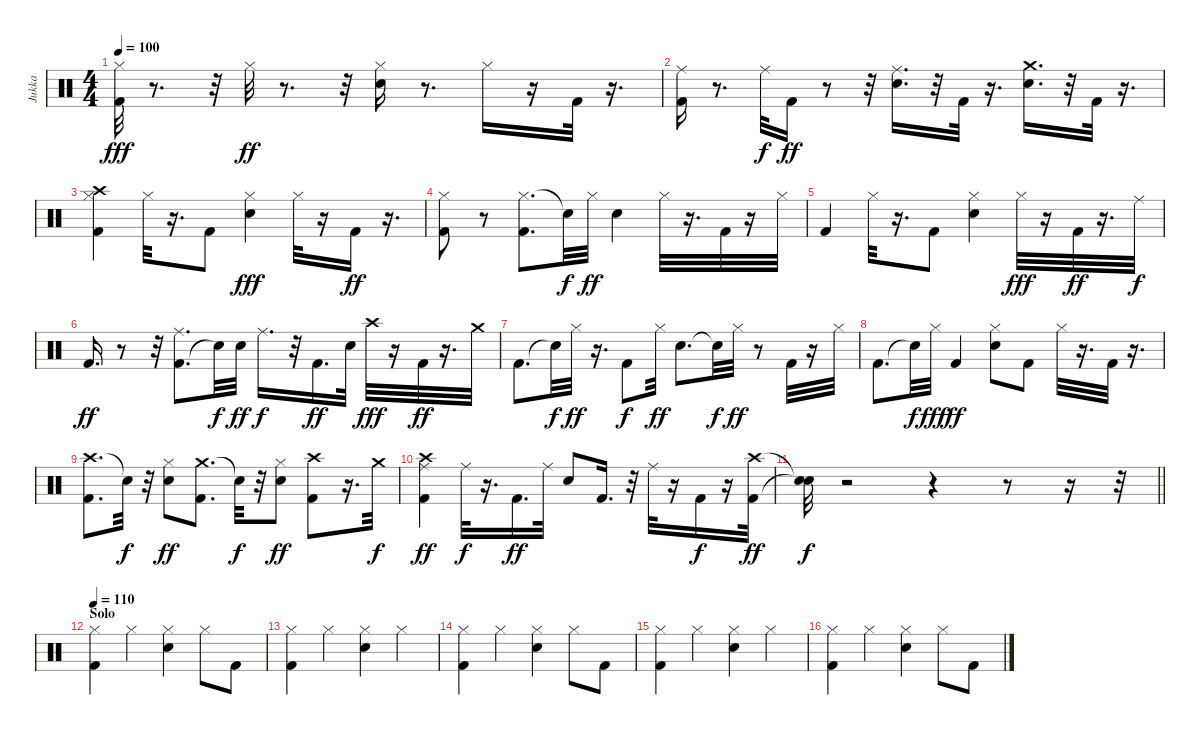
\track ("Jukka" "Jukka") {instrument percussion}
\staff {score}
\articulation defaults
\ts (4 4)
\tempo 100
\clef neutral
\ks c
("Hi-Hat (closed)" "Kick (hit) 2").32{dy fff} r.8{d} r.32 "Hi-Hat (closed)".32{dy ff} r.8{d} r.32 ("Hi-Hat (closed)" "Electric Snare (hit)").16 r.8{d} "Hi-Hat (closed)".16 r.16 "Kick (hit) 2".32 r.16{d} |
("Ride (middle)" "Kick (hit) 2").16 r.8{d} "Ride (middle)".32{dy f} "Kick (hit) 2".16{dy ff} r.8 r.32 ("Electric Snare (hit)" "Ride (middle)").16{d} r.32 "Kick (hit) 2".32 r.16{d} ("Crash medium (hit)" "Electric Snare (hit)").16{d} r.32 "Kick (hit) 2".32 r.16{d} |
("Crash high (hit)" "Hi-Hat (closed)" "Kick (hit) 2").4 "Hi-Hat (closed)".32 r.16{d} "Kick (hit) 2".8 ("Electric Snare (hit)" "Hi-Hat (closed)").4{dy fff} "Hi-Hat (closed)".32 r.16 "Kick (hit) 2".16{dy ff} r.16{d} |
("Hi-Hat (closed)" "Kick (hit) 2").8 r.8 ("Hi-Hat (closed)" "Kick (hit) 2").8{d} "Snare (hit)"{t}.32{dy f} "Hi-Hat (closed)".32{dy ff} "Electric Snare (hit)".4 "Hi-Hat (closed)".32 r.16{d} "Kick (hit) 2".32 r.16 "Hi-Hat (closed)".32 |
"Kick (hit) 2".4 "Hi-Hat (closed)".32 r.16{d} "Kick (hit) 2".8 ("Hi-Hat (closed)" "Electric Snare (hit)").4 "Hi-Hat (closed)".32{dy fff} r.16 "Kick (hit) 2".32{dy ff} r.16{d} "Ride (middle)".32{dy f} |
"Kick (hit) 2".16{d dy ff} r.8 r.32 ("Kick (hit) 2" "Ride (middle)").8{d} "Snare (hit)"{t}.32{dy f} "Electric Snare (hit)".32{dy ff} "Ride (middle)".16{d dy f} r.32 "Kick (hit) 2".16{d dy ff} "Electric Snare (hit)".32 "Crash high (hit)".32{dy fff} r.16 "Kick (hit) 2".32{dy ff} r.16{d} "Crash medium (hit)".32 |
"Kick (hit) 2".8{d} "Snare (hit)"{t}.32{dy f} "Hi-Hat (closed)".32{dy ff} r.16{d} "Kick (hit) 2".8{dy f} "Hi-Hat (closed)".32{dy ff} "Electric Snare (hit)".8{d} "Snare (hit)"{t}.32{dy f} "Hi-Hat (closed)".32{dy ff} r.8 "Kick (hit) 2".32 r.16 "Hi-Hat (closed)".32 |
"Kick (hit) 2".8{d} "Snare (hit)"{t}.32{dy f} "Hi-Hat (closed)".32{dy fff} "Kick (hit) 2".4{dy ff} ("Hi-Hat (closed)" "Electric Snare (hit)").8 "Kick (hit) 2".8 "Hi-Hat (closed)".32 r.16{d} "Kick (hit) 2".32 r.16{d} |
("Crash high (hit)" "Kick (hit) 2").8{d} "Snare (hit)"{t}.32{dy f} r.32 ("Hi-Hat (closed)" "Electric Snare (hit)").8{dy ff} ("Crash medium (hit)" "Kick (hit) 2").8{d} "Snare (hit)"{t}.32{dy f} r.32 ("Hi-Hat (closed)" "Electric Snare (hit)").8{dy ff} ("Crash high (hit)" "Kick (hit) 2").8 r.16{d} "Crash medium (hit)".32{dy f} |
("Crash high (hit)" "Ride (middle)" "Kick (hit) 2").4{dy ff} "Ride (middle)".32{dy f} r.16{d} "Kick (hit) 2".16{d dy ff} "Ride (middle)".32 "Electric Snare (hit)".8 "Kick (hit) 2".16{d} r.32 "Ride (middle)".32 r.16 "Kick (hit) 2".16{dy f} r.16 ("Crash high (hit)" "Kick (hit) 2").32{dy ff} |
\barLineRight lightlight
("Snare (hit)"{t} "Snare (hit)"{t}).32{dy f} r.2 r.4 r.8 r.16 r.32 |
\section ("" "Solo")
\tempo 110
("Hi-Hat (closed)" "Kick (hit) 2").4 "Hi-Hat (closed)".4 ("Hi-Hat (closed)" "Snare (hit) 2").4 "Hi-Hat (closed)".8 "Kick (hit) 2".8 |
("Hi-Hat (closed)" "Kick (hit) 2").4 "Hi-Hat (closed)".4 ("Hi-Hat (closed)" "Snare (hit) 2").4 "Hi-Hat (closed)".4 |
("Hi-Hat (closed)" "Kick (hit) 2").4 "Hi-Hat (closed)".4 ("Hi-Hat (closed)" "Snare (hit) 2").4 "Hi-Hat (closed)".8 "Kick (hit) 2".8 |
("Hi-Hat (closed)" "Kick (hit) 2").4 "Hi-Hat (closed)".4 ("Hi-Hat (closed)" "Snare (hit) 2").4 "Hi-Hat (closed)".4 |
("Hi-Hat (closed)" "Kick (hit) 2").4 "Hi-Hat (closed)".4 ("Hi-Hat (closed)" "Snare (hit) 2").4 "Hi-Hat (closed)".8 "Kick (hit) 2".8
